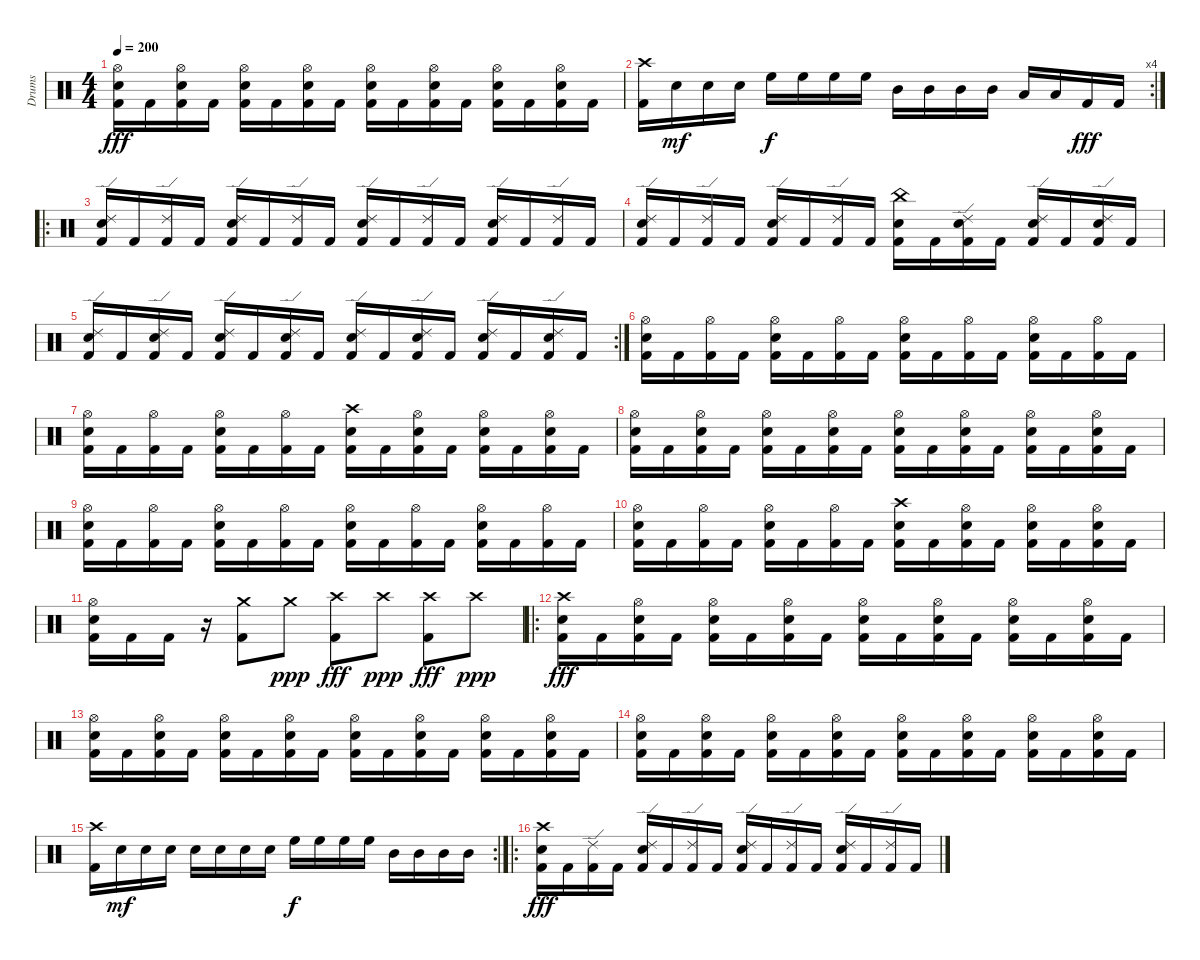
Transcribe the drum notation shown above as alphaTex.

\track ("Drums" "Drums") {instrument percussion}
\staff {score}
\articulation defaults
\ts (4 4)
\tempo 200
\clef neutral
\ks c
("Hi-Hat (open)" "Electric Snare (hit)" "Kick (hit) 2").16{dy fff} "Kick (hit) 2".16 ("Hi-Hat (open)" "Electric Snare (hit)" "Kick (hit) 2").16 "Kick (hit) 2".16 ("Hi-Hat (open)" "Electric Snare (hit)" "Kick (hit) 2").16 "Kick (hit) 2".16 ("Hi-Hat (open)" "Electric Snare (hit)" "Kick (hit) 2").16 "Kick (hit) 2".16 ("Hi-Hat (open)" "Electric Snare (hit)" "Kick (hit) 2").16 "Kick (hit) 2".16 ("Hi-Hat (open)" "Electric Snare (hit)" "Kick (hit) 2").16 "Kick (hit) 2".16 ("Hi-Hat (open)" "Electric Snare (hit)" "Kick (hit) 2").16 "Kick (hit) 2".16 ("Hi-Hat (open)" "Electric Snare (hit)" "Kick (hit) 2").16 "Kick (hit) 2".16 |
\rc 4
("Crash high (hit)" "Kick (hit) 2").16 "Electric Snare (hit)".16{dy mf} "Electric Snare (hit)".16 "Electric Snare (hit)".16 "High Floor Tom (hit)".16{dy f} "High Floor Tom (hit)".16 "High Floor Tom (hit)".16 "High Floor Tom (hit)".16 "Mid Tom (hit)".16 "Mid Tom (hit)".16 "Mid Tom (hit)".16 "Mid Tom (hit)".16 "Low Tom (hit)".16 "Low Tom (hit)".16 "Kick (hit) 2".16{dy fff} "Kick (hit) 2".16 |
\ro
("Ride (edge) 2" "Electric Snare (hit)" "Kick (hit) 2").16 "Kick (hit) 2".16 ("Ride (edge) 2" "Kick (hit) 2").16 "Kick (hit) 2".16 ("Ride (edge) 2" "Electric Snare (hit)" "Kick (hit) 2").16 "Kick (hit) 2".16 ("Ride (edge) 2" "Kick (hit) 2").16 "Kick (hit) 2".16 ("Ride (edge) 2" "Electric Snare (hit)" "Kick (hit) 2").16 "Kick (hit) 2".16 ("Ride (edge) 2" "Kick (hit) 2").16 "Kick (hit) 2".16 ("Ride (edge) 2" "Electric Snare (hit)" "Kick (hit) 2").16 "Kick (hit) 2".16 ("Ride (edge) 2" "Kick (hit) 2").16 "Kick (hit) 2".16 |
("Ride (edge) 2" "Electric Snare (hit)" "Kick (hit) 2").16 "Kick (hit) 2".16 ("Ride (edge) 2" "Kick (hit) 2").16 "Kick (hit) 2".16 ("Ride (edge) 2" "Electric Snare (hit)" "Kick (hit) 2").16 "Kick (hit) 2".16 ("Ride (edge) 2" "Kick (hit) 2").16 "Kick (hit) 2".16 ("China (hit)" "Electric Snare (hit)" "Kick (hit) 2").16 "Kick (hit) 2".16 ("Ride (edge) 2" "Electric Snare (hit)" "Kick (hit) 2").16 "Kick (hit) 2".16 ("Ride (edge) 2" "Electric Snare (hit)" "Kick (hit) 2").16 "Kick (hit) 2".16 ("Ride (edge) 2" "Electric Snare (hit)" "Kick (hit) 2").16 "Kick (hit) 2".16 |
\rc 2
("Ride (edge) 2" "Electric Snare (hit)" "Kick (hit) 2").16 "Kick (hit) 2".16 ("Ride (edge) 2" "Electric Snare (hit)" "Kick (hit) 2").16 "Kick (hit) 2".16 ("Ride (edge) 2" "Electric Snare (hit)" "Kick (hit) 2").16 "Kick (hit) 2".16 ("Ride (edge) 2" "Electric Snare (hit)" "Kick (hit) 2").16 "Kick (hit) 2".16 ("Ride (edge) 2" "Electric Snare (hit)" "Kick (hit) 2").16 "Kick (hit) 2".16 ("Ride (edge) 2" "Electric Snare (hit)" "Kick (hit) 2").16 "Kick (hit) 2".16 ("Ride (edge) 2" "Electric Snare (hit)" "Kick (hit) 2").16 "Kick (hit) 2".16 ("Ride (edge) 2" "Electric Snare (hit)" "Kick (hit) 2").16 "Kick (hit) 2".16 |
("Hi-Hat (open)" "Electric Snare (hit)" "Kick (hit) 2").16 "Kick (hit) 2".16 ("Hi-Hat (open)" "Kick (hit) 2").16 "Kick (hit) 2".16 ("Hi-Hat (open)" "Electric Snare (hit)" "Kick (hit) 2").16 "Kick (hit) 2".16 ("Hi-Hat (open)" "Kick (hit) 2").16 "Kick (hit) 2".16 ("Hi-Hat (open)" "Electric Snare (hit)" "Kick (hit) 2").16 "Kick (hit) 2".16 ("Hi-Hat (open)" "Kick (hit) 2").16 "Kick (hit) 2".16 ("Hi-Hat (open)" "Electric Snare (hit)" "Kick (hit) 2").16 "Kick (hit) 2".16 ("Hi-Hat (open)" "Kick (hit) 2").16 "Kick (hit) 2".16 |
("Hi-Hat (open)" "Electric Snare (hit)" "Kick (hit) 2").16 "Kick (hit) 2".16 ("Hi-Hat (open)" "Kick (hit) 2").16 "Kick (hit) 2".16 ("Hi-Hat (open)" "Electric Snare (hit)" "Kick (hit) 2").16 "Kick (hit) 2".16 ("Hi-Hat (open)" "Kick (hit) 2").16 "Kick (hit) 2".16 ("Crash high (hit)" "Electric Snare (hit)" "Kick (hit) 2").16 "Kick (hit) 2".16 ("Hi-Hat (open)" "Electric Snare (hit)" "Kick (hit) 2").16 "Kick (hit) 2".16 ("Hi-Hat (open)" "Electric Snare (hit)" "Kick (hit) 2").16 "Kick (hit) 2".16 ("Hi-Hat (open)" "Electric Snare (hit)" "Kick (hit) 2").16 "Kick (hit) 2".16 |
("Hi-Hat (open)" "Electric Snare (hit)" "Kick (hit) 2").16 "Kick (hit) 2".16 ("Hi-Hat (open)" "Electric Snare (hit)" "Kick (hit) 2").16 "Kick (hit) 2".16 ("Hi-Hat (open)" "Electric Snare (hit)" "Kick (hit) 2").16 "Kick (hit) 2".16 ("Hi-Hat (open)" "Electric Snare (hit)" "Kick (hit) 2").16 "Kick (hit) 2".16 ("Hi-Hat (open)" "Electric Snare (hit)" "Kick (hit) 2").16 "Kick (hit) 2".16 ("Hi-Hat (open)" "Electric Snare (hit)" "Kick (hit) 2").16 "Kick (hit) 2".16 ("Hi-Hat (open)" "Electric Snare (hit)" "Kick (hit) 2").16 "Kick (hit) 2".16 ("Hi-Hat (open)" "Electric Snare (hit)" "Kick (hit) 2").16 "Kick (hit) 2".16 |
("Hi-Hat (open)" "Electric Snare (hit)" "Kick (hit) 2").16 "Kick (hit) 2".16 ("Hi-Hat (open)" "Kick (hit) 2").16 "Kick (hit) 2".16 ("Hi-Hat (open)" "Electric Snare (hit)" "Kick (hit) 2").16 "Kick (hit) 2".16 ("Hi-Hat (open)" "Kick (hit) 2").16 "Kick (hit) 2".16 ("Hi-Hat (open)" "Electric Snare (hit)" "Kick (hit) 2").16 "Kick (hit) 2".16 ("Hi-Hat (open)" "Kick (hit) 2").16 "Kick (hit) 2".16 ("Hi-Hat (open)" "Electric Snare (hit)" "Kick (hit) 2").16 "Kick (hit) 2".16 ("Hi-Hat (open)" "Kick (hit) 2").16 "Kick (hit) 2".16 |
("Hi-Hat (open)" "Electric Snare (hit)" "Kick (hit) 2").16 "Kick (hit) 2".16 ("Hi-Hat (open)" "Kick (hit) 2").16 "Kick (hit) 2".16 ("Hi-Hat (open)" "Electric Snare (hit)" "Kick (hit) 2").16 "Kick (hit) 2".16 ("Hi-Hat (open)" "Kick (hit) 2").16 "Kick (hit) 2".16 ("Crash high (hit)" "Electric Snare (hit)" "Kick (hit) 2").16 "Kick (hit) 2".16 ("Hi-Hat (open)" "Electric Snare (hit)" "Kick (hit) 2").16 "Kick (hit) 2".16 ("Hi-Hat (open)" "Electric Snare (hit)" "Kick (hit) 2").16 "Kick (hit) 2".16 ("Hi-Hat (open)" "Electric Snare (hit)" "Kick (hit) 2").16 "Kick (hit) 2".16 |
("Hi-Hat (open)" "Electric Snare (hit)" "Kick (hit) 2").16 "Kick (hit) 2".16 "Kick (hit) 2".16 r.16 ("Crash medium (hit)" "Kick (hit) 2").8 "Crash medium (hit)".8{dy ppp} ("Crash high (hit)" "Kick (hit) 2").8{dy fff} "Crash high (hit)".8{dy ppp} ("Crash high (hit)" "Kick (hit) 2").8{dy fff} "Crash high (hit)".8{dy ppp} |
\ro
("Crash high (hit)" "Electric Snare (hit)" "Kick (hit) 2").16{dy fff} "Kick (hit) 2".16 ("Hi-Hat (open)" "Electric Snare (hit)" "Kick (hit) 2").16 "Kick (hit) 2".16 ("Hi-Hat (open)" "Electric Snare (hit)" "Kick (hit) 2").16 "Kick (hit) 2".16 ("Hi-Hat (open)" "Electric Snare (hit)" "Kick (hit) 2").16 "Kick (hit) 2".16 ("Hi-Hat (open)" "Electric Snare (hit)" "Kick (hit) 2").16 "Kick (hit) 2".16 ("Hi-Hat (open)" "Electric Snare (hit)" "Kick (hit) 2").16 "Kick (hit) 2".16 ("Hi-Hat (open)" "Electric Snare (hit)" "Kick (hit) 2").16 "Kick (hit) 2".16 ("Hi-Hat (open)" "Electric Snare (hit)" "Kick (hit) 2").16 "Kick (hit) 2".16 |
("Hi-Hat (open)" "Electric Snare (hit)" "Kick (hit) 2").16 "Kick (hit) 2".16 ("Hi-Hat (open)" "Electric Snare (hit)" "Kick (hit) 2").16 "Kick (hit) 2".16 ("Hi-Hat (open)" "Electric Snare (hit)" "Kick (hit) 2").16 "Kick (hit) 2".16 ("Hi-Hat (open)" "Electric Snare (hit)" "Kick (hit) 2").16 "Kick (hit) 2".16 ("Hi-Hat (open)" "Electric Snare (hit)" "Kick (hit) 2").16 "Kick (hit) 2".16 ("Hi-Hat (open)" "Electric Snare (hit)" "Kick (hit) 2").16 "Kick (hit) 2".16 ("Hi-Hat (open)" "Electric Snare (hit)" "Kick (hit) 2").16 "Kick (hit) 2".16 ("Hi-Hat (open)" "Electric Snare (hit)" "Kick (hit) 2").16 "Kick (hit) 2".16 |
("Hi-Hat (open)" "Electric Snare (hit)" "Kick (hit) 2").16 "Kick (hit) 2".16 ("Hi-Hat (open)" "Electric Snare (hit)" "Kick (hit) 2").16 "Kick (hit) 2".16 ("Hi-Hat (open)" "Electric Snare (hit)" "Kick (hit) 2").16 "Kick (hit) 2".16 ("Hi-Hat (open)" "Electric Snare (hit)" "Kick (hit) 2").16 "Kick (hit) 2".16 ("Hi-Hat (open)" "Electric Snare (hit)" "Kick (hit) 2").16 "Kick (hit) 2".16 ("Hi-Hat (open)" "Electric Snare (hit)" "Kick (hit) 2").16 "Kick (hit) 2".16 ("Hi-Hat (open)" "Electric Snare (hit)" "Kick (hit) 2").16 "Kick (hit) 2".16 ("Hi-Hat (open)" "Electric Snare (hit)" "Kick (hit) 2").16 "Kick (hit) 2".16 |
\rc 2
("Crash high (hit)" "Kick (hit) 2").16 "Electric Snare (hit)".16{dy mf} "Electric Snare (hit)".16 "Electric Snare (hit)".16 "Electric Snare (hit)".16 "Electric Snare (hit)".16 "Electric Snare (hit)".16 "Electric Snare (hit)".16 "High Floor Tom (hit)".16{dy f} "High Floor Tom (hit)".16 "High Floor Tom (hit)".16 "High Floor Tom (hit)".16 "Mid Tom (hit)".16 "Mid Tom (hit)".16 "Mid Tom (hit)".16 "Mid Tom (hit)".16 |
\ro
("Crash high (hit)" "Electric Snare (hit)" "Kick (hit) 2").16{dy fff} "Kick (hit) 2".16 ("Ride (edge) 2" "Kick (hit) 2").16 "Kick (hit) 2".16 ("Ride (edge) 2" "Electric Snare (hit)" "Kick (hit) 2").16 "Kick (hit) 2".16 ("Ride (edge) 2" "Kick (hit) 2").16 "Kick (hit) 2".16 ("Ride (edge) 2" "Electric Snare (hit)" "Kick (hit) 2").16 "Kick (hit) 2".16 ("Ride (edge) 2" "Kick (hit) 2").16 "Kick (hit) 2".16 ("Ride (edge) 2" "Electric Snare (hit)" "Kick (hit) 2").16 "Kick (hit) 2".16 ("Ride (edge) 2" "Kick (hit) 2").16 "Kick (hit) 2".16
